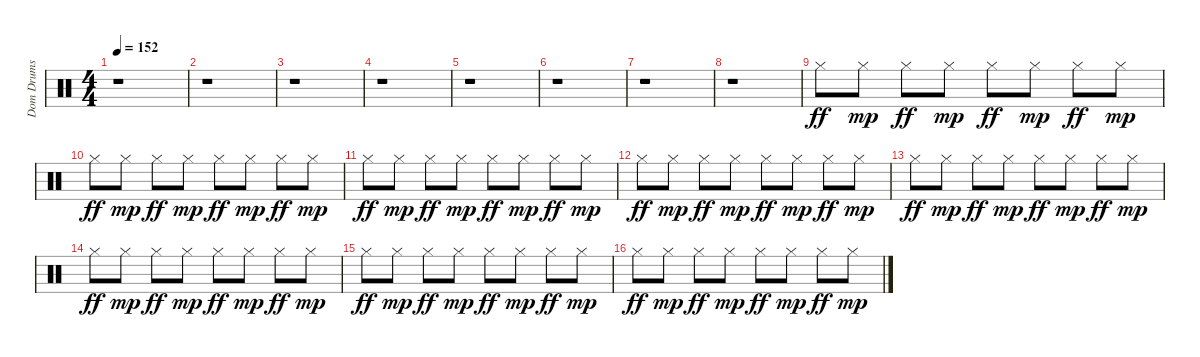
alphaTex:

\track ("Dom Drums" "Dom Drums") {instrument percussion}
\staff {score}
\articulation defaults
\ts (4 4)
\tempo 152
\clef neutral
\ks c
r.1{dy ff} |
r.1 |
r.1 |
r.1 |
r.1 |
r.1 |
r.1 |
r.1 |
"Hi-Hat (closed)".8 "Hi-Hat (closed)".8{dy mp} "Hi-Hat (closed)".8{dy ff} "Hi-Hat (closed)".8{dy mp} "Hi-Hat (closed)".8{dy ff} "Hi-Hat (closed)".8{dy mp} "Hi-Hat (closed)".8{dy ff} "Hi-Hat (closed)".8{dy mp} |
"Hi-Hat (closed)".8{dy ff} "Hi-Hat (closed)".8{dy mp} "Hi-Hat (closed)".8{dy ff} "Hi-Hat (closed)".8{dy mp} "Hi-Hat (closed)".8{dy ff} "Hi-Hat (closed)".8{dy mp} "Hi-Hat (closed)".8{dy ff} "Hi-Hat (closed)".8{dy mp} |
"Hi-Hat (closed)".8{dy ff} "Hi-Hat (closed)".8{dy mp} "Hi-Hat (closed)".8{dy ff} "Hi-Hat (closed)".8{dy mp} "Hi-Hat (closed)".8{dy ff} "Hi-Hat (closed)".8{dy mp} "Hi-Hat (closed)".8{dy ff} "Hi-Hat (closed)".8{dy mp} |
"Hi-Hat (closed)".8{dy ff} "Hi-Hat (closed)".8{dy mp} "Hi-Hat (closed)".8{dy ff} "Hi-Hat (closed)".8{dy mp} "Hi-Hat (closed)".8{dy ff} "Hi-Hat (closed)".8{dy mp} "Hi-Hat (closed)".8{dy ff} "Hi-Hat (closed)".8{dy mp} |
"Hi-Hat (closed)".8{dy ff} "Hi-Hat (closed)".8{dy mp} "Hi-Hat (closed)".8{dy ff} "Hi-Hat (closed)".8{dy mp} "Hi-Hat (closed)".8{dy ff} "Hi-Hat (closed)".8{dy mp} "Hi-Hat (closed)".8{dy ff} "Hi-Hat (closed)".8{dy mp} |
"Hi-Hat (closed)".8{dy ff} "Hi-Hat (closed)".8{dy mp} "Hi-Hat (closed)".8{dy ff} "Hi-Hat (closed)".8{dy mp} "Hi-Hat (closed)".8{dy ff} "Hi-Hat (closed)".8{dy mp} "Hi-Hat (closed)".8{dy ff} "Hi-Hat (closed)".8{dy mp} |
"Hi-Hat (closed)".8{dy ff} "Hi-Hat (closed)".8{dy mp} "Hi-Hat (closed)".8{dy ff} "Hi-Hat (closed)".8{dy mp} "Hi-Hat (closed)".8{dy ff} "Hi-Hat (closed)".8{dy mp} "Hi-Hat (closed)".8{dy ff} "Hi-Hat (closed)".8{dy mp} |
"Hi-Hat (closed)".8{dy ff} "Hi-Hat (closed)".8{dy mp} "Hi-Hat (closed)".8{dy ff} "Hi-Hat (closed)".8{dy mp} "Hi-Hat (closed)".8{dy ff} "Hi-Hat (closed)".8{dy mp} "Hi-Hat (closed)".8{dy ff} "Hi-Hat (closed)".8{dy mp}
